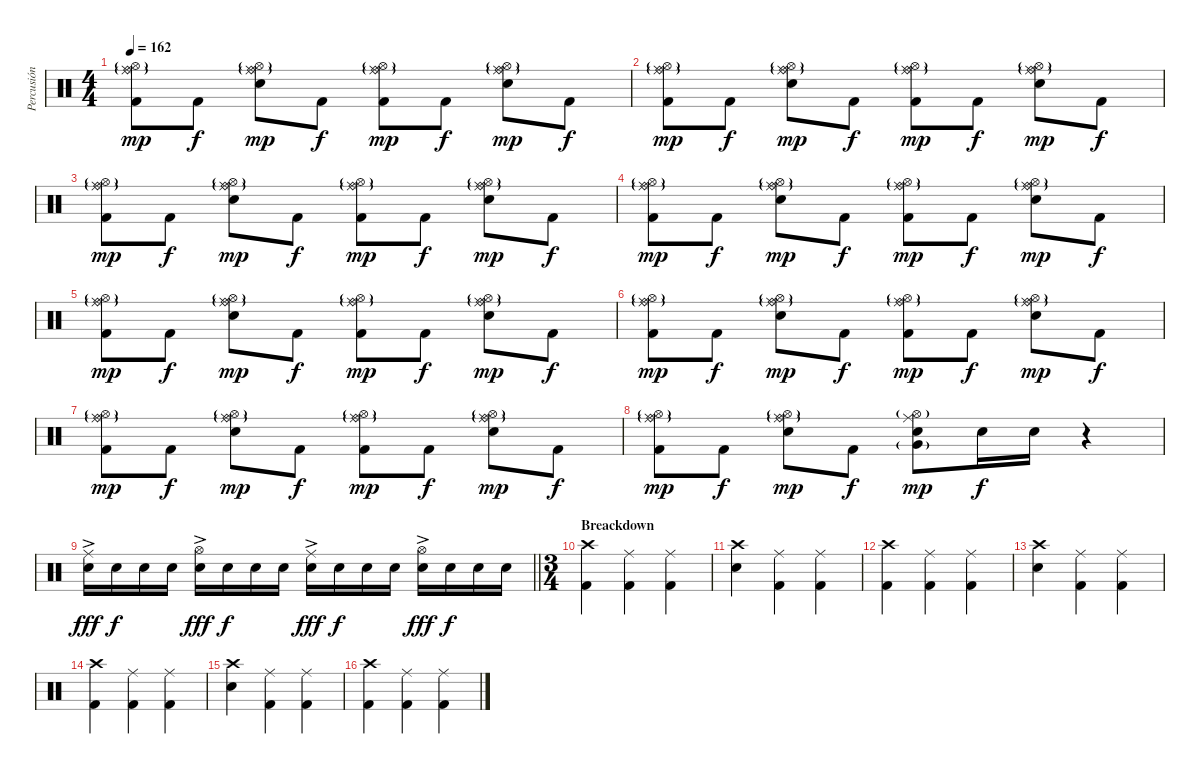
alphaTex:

\track ("Percusión" "Percusión") {instrument percussion}
\staff {score}
\articulation defaults
\ts (4 4)
\tempo 162
\clef neutral
\ks c
("Ride (middle)" "Hi-Hat (open)"{g} "Ride (bell)"{g} "Kick (hit) 2").8{dy mp} "Kick (hit) 2".8{dy f} ("Ride (middle)" "Hi-Hat (open)"{g} "Ride (bell)"{g} "Electric Snare (hit)").8{dy mp} "Kick (hit) 2".8{dy f} ("Ride (middle)" "Hi-Hat (open)"{g} "Ride (bell)"{g} "Kick (hit) 2").8{dy mp} "Kick (hit) 2".8{dy f} ("Ride (middle)" "Hi-Hat (open)"{g} "Ride (bell)"{g} "Electric Snare (hit)").8{dy mp} "Kick (hit) 2".8{dy f} |
("Ride (middle)" "Hi-Hat (open)"{g} "Ride (bell)"{g} "Kick (hit) 2").8{dy mp} "Kick (hit) 2".8{dy f} ("Ride (middle)" "Hi-Hat (open)"{g} "Ride (bell)"{g} "Electric Snare (hit)").8{dy mp} "Kick (hit) 2".8{dy f} ("Ride (middle)" "Hi-Hat (open)"{g} "Ride (bell)"{g} "Kick (hit) 2").8{dy mp} "Kick (hit) 2".8{dy f} ("Ride (middle)" "Hi-Hat (open)"{g} "Ride (bell)"{g} "Electric Snare (hit)").8{dy mp} "Kick (hit) 2".8{dy f} |
("Ride (middle)" "Hi-Hat (open)"{g} "Ride (bell)"{g} "Kick (hit) 2").8{dy mp} "Kick (hit) 2".8{dy f} ("Ride (middle)" "Hi-Hat (open)"{g} "Ride (bell)"{g} "Electric Snare (hit)").8{dy mp} "Kick (hit) 2".8{dy f} ("Ride (middle)" "Hi-Hat (open)"{g} "Ride (bell)"{g} "Kick (hit) 2").8{dy mp} "Kick (hit) 2".8{dy f} ("Ride (middle)" "Hi-Hat (open)"{g} "Ride (bell)"{g} "Electric Snare (hit)").8{dy mp} "Kick (hit) 2".8{dy f} |
("Ride (middle)" "Hi-Hat (open)"{g} "Ride (bell)"{g} "Kick (hit) 2").8{dy mp} "Kick (hit) 2".8{dy f} ("Ride (middle)" "Hi-Hat (open)"{g} "Ride (bell)"{g} "Electric Snare (hit)").8{dy mp} "Kick (hit) 2".8{dy f} ("Ride (middle)" "Hi-Hat (open)"{g} "Ride (bell)"{g} "Kick (hit) 2").8{dy mp} "Kick (hit) 2".8{dy f} ("Ride (middle)" "Hi-Hat (open)"{g} "Ride (bell)"{g} "Electric Snare (hit)").8{dy mp} "Kick (hit) 2".8{dy f} |
("Ride (middle)" "Hi-Hat (open)"{g} "Ride (bell)"{g} "Kick (hit) 2").8{dy mp} "Kick (hit) 2".8{dy f} ("Ride (middle)" "Hi-Hat (open)"{g} "Ride (bell)"{g} "Electric Snare (hit)").8{dy mp} "Kick (hit) 2".8{dy f} ("Ride (middle)" "Hi-Hat (open)"{g} "Ride (bell)"{g} "Kick (hit) 2").8{dy mp} "Kick (hit) 2".8{dy f} ("Ride (middle)" "Hi-Hat (open)"{g} "Ride (bell)"{g} "Electric Snare (hit)").8{dy mp} "Kick (hit) 2".8{dy f} |
("Ride (middle)" "Hi-Hat (open)"{g} "Ride (bell)"{g} "Kick (hit) 2").8{dy mp} "Kick (hit) 2".8{dy f} ("Ride (middle)" "Hi-Hat (open)"{g} "Ride (bell)"{g} "Electric Snare (hit)").8{dy mp} "Kick (hit) 2".8{dy f} ("Ride (middle)" "Hi-Hat (open)"{g} "Ride (bell)"{g} "Kick (hit) 2").8{dy mp} "Kick (hit) 2".8{dy f} ("Ride (middle)" "Hi-Hat (open)"{g} "Ride (bell)"{g} "Electric Snare (hit)").8{dy mp} "Kick (hit) 2".8{dy f} |
("Ride (middle)" "Hi-Hat (open)"{g} "Ride (bell)"{g} "Kick (hit) 2").8{dy mp} "Kick (hit) 2".8{dy f} ("Ride (middle)" "Hi-Hat (open)"{g} "Ride (bell)"{g} "Electric Snare (hit)").8{dy mp} "Kick (hit) 2".8{dy f} ("Ride (middle)" "Hi-Hat (open)"{g} "Ride (bell)"{g} "Kick (hit) 2").8{dy mp} "Kick (hit) 2".8{dy f} ("Ride (middle)" "Hi-Hat (open)"{g} "Ride (bell)"{g} "Electric Snare (hit)").8{dy mp} "Kick (hit) 2".8{dy f} |
("Ride (middle)" "Hi-Hat (open)"{g} "Ride (bell)"{g} "Kick (hit) 2").8{dy mp} "Kick (hit) 2".8{dy f} ("Ride (middle)" "Hi-Hat (open)"{g} "Ride (bell)"{g} "Electric Snare (hit)").8{dy mp} "Kick (hit) 2".8{dy f} ("Ride (middle)" "Hi-Hat (open)"{g} "Very Low Tom (hit)"{g} "Electric Snare (hit)").8{dy mp} "Electric Snare (hit)".16{dy f} "Electric Snare (hit)".16 r.4 |
\barLineRight lightlight
("Ride (middle)" "Electric Snare (hit)"{ac}).16{dy fff} "Electric Snare (hit)".16{dy f} "Electric Snare (hit)".16 "Electric Snare (hit)".16 ("Hi-Hat (open)" "Electric Snare (hit)"{ac}).16{dy fff} "Electric Snare (hit)".16{dy f} "Electric Snare (hit)".16 "Electric Snare (hit)".16 ("Ride (middle)" "Electric Snare (hit)"{ac}).16{dy fff} "Electric Snare (hit)".16{dy f} "Electric Snare (hit)".16 "Electric Snare (hit)".16 ("Hi-Hat (open)" "Electric Snare (hit)"{ac}).16{dy fff} "Electric Snare (hit)".16{dy f} "Electric Snare (hit)".16 "Electric Snare (hit)".16 |
\ts (3 4)
\section ("" "Breackdown")
("Crash high (hit)" "Kick (hit) 2").4 ("Ride (middle)" "Kick (hit) 2").4 ("Ride (middle)" "Kick (hit) 2").4 |
("Crash high (hit)" "Electric Snare (hit)").4 ("Ride (middle)" "Kick (hit) 2").4 ("Ride (middle)" "Kick (hit) 2").4 |
("Crash high (hit)" "Kick (hit) 2").4 ("Ride (middle)" "Kick (hit) 2").4 ("Ride (middle)" "Kick (hit) 2").4 |
("Crash high (hit)" "Electric Snare (hit)").4 ("Ride (middle)" "Kick (hit) 2").4 ("Ride (middle)" "Kick (hit) 2").4 |
("Crash high (hit)" "Kick (hit) 2").4 ("Ride (middle)" "Kick (hit) 2").4 ("Ride (middle)" "Kick (hit) 2").4 |
("Crash high (hit)" "Electric Snare (hit)").4 ("Ride (middle)" "Kick (hit) 2").4 ("Ride (middle)" "Kick (hit) 2").4 |
("Crash high (hit)" "Kick (hit) 2").4 ("Ride (middle)" "Kick (hit) 2").4 ("Ride (middle)" "Kick (hit) 2").4
